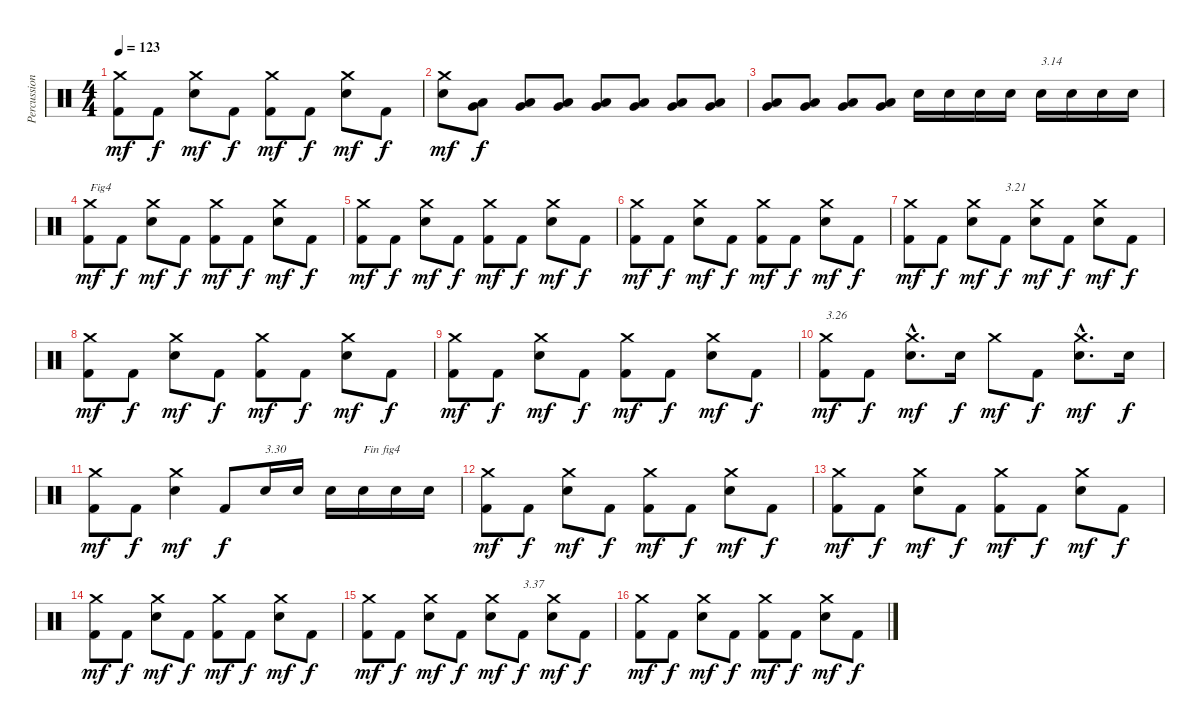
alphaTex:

\track ("Percussions" "Percussion") {instrument percussion}
\staff {score}
\articulation defaults
\ts (4 4)
\tempo 123
\clef neutral
\ks c
("Kick (hit) 2" "Crash medium (hit)").8{dy mf} "Kick (hit) 2".8{dy f} ("Electric Snare (hit)" "Crash medium (hit)").8{dy mf} "Kick (hit) 2".8{dy f} ("Kick (hit) 2" "Crash medium (hit)").8{dy mf} "Kick (hit) 2".8{dy f} ("Electric Snare (hit)" "Crash medium (hit)").8{dy mf} "Kick (hit) 2".8{dy f} |
("Electric Snare (hit)" "Crash medium (hit)").8{dy mf} ("Very Low Tom (hit)" "Low Floor Tom (hit)").8{dy f} ("Very Low Tom (hit)" "Low Floor Tom (hit)").8 ("Very Low Tom (hit)" "Low Floor Tom (hit)").8 ("Very Low Tom (hit)" "Low Floor Tom (hit)").8 ("Very Low Tom (hit)" "Low Floor Tom (hit)").8 ("Very Low Tom (hit)" "Low Floor Tom (hit)").8 ("Very Low Tom (hit)" "Low Floor Tom (hit)").8 |
("Very Low Tom (hit)" "Low Floor Tom (hit)").8 ("Very Low Tom (hit)" "Low Floor Tom (hit)").8 ("Very Low Tom (hit)" "Low Floor Tom (hit)").8 ("Very Low Tom (hit)" "Low Floor Tom (hit)").8 "Electric Snare (hit)".16 "Electric Snare (hit)".16 "Electric Snare (hit)".16 "Electric Snare (hit)".16 "Electric Snare (hit)".16{txt "3.14"} "Electric Snare (hit)".16 "Electric Snare (hit)".16 "Electric Snare (hit)".16 |
("Kick (hit) 2" "Crash medium (hit)").8{txt "Fig4" dy mf} "Kick (hit) 2".8{dy f} ("Electric Snare (hit)" "Crash medium (hit)").8{dy mf} "Kick (hit) 2".8{dy f} ("Kick (hit) 2" "Crash medium (hit)").8{dy mf} "Kick (hit) 2".8{dy f} ("Electric Snare (hit)" "Crash medium (hit)").8{dy mf} "Kick (hit) 2".8{dy f} |
("Kick (hit) 2" "Crash medium (hit)").8{dy mf} "Kick (hit) 2".8{dy f} ("Electric Snare (hit)" "Crash medium (hit)").8{dy mf} "Kick (hit) 2".8{dy f} ("Kick (hit) 2" "Crash medium (hit)").8{dy mf} "Kick (hit) 2".8{dy f} ("Electric Snare (hit)" "Crash medium (hit)").8{dy mf} "Kick (hit) 2".8{dy f} |
("Kick (hit) 2" "Crash medium (hit)").8{dy mf} "Kick (hit) 2".8{dy f} ("Electric Snare (hit)" "Crash medium (hit)").8{dy mf} "Kick (hit) 2".8{dy f} ("Kick (hit) 2" "Crash medium (hit)").8{dy mf} "Kick (hit) 2".8{dy f} ("Electric Snare (hit)" "Crash medium (hit)").8{dy mf} "Kick (hit) 2".8{dy f} |
("Kick (hit) 2" "Crash medium (hit)").8{dy mf} "Kick (hit) 2".8{dy f} ("Electric Snare (hit)" "Crash medium (hit)").8{dy mf} "Kick (hit) 2".8{txt "3.21" dy f} ("Electric Snare (hit)" "Crash medium (hit)").8{dy mf} "Kick (hit) 2".8{dy f} ("Electric Snare (hit)" "Crash medium (hit)").8{dy mf} "Kick (hit) 2".8{dy f} |
("Kick (hit) 2" "Crash medium (hit)").8{dy mf} "Kick (hit) 2".8{dy f} ("Electric Snare (hit)" "Crash medium (hit)").8{dy mf} "Kick (hit) 2".8{dy f} ("Kick (hit) 2" "Crash medium (hit)").8{dy mf} "Kick (hit) 2".8{dy f} ("Electric Snare (hit)" "Crash medium (hit)").8{dy mf} "Kick (hit) 2".8{dy f} |
("Kick (hit) 2" "Crash medium (hit)").8{dy mf} "Kick (hit) 2".8{dy f} ("Electric Snare (hit)" "Crash medium (hit)").8{dy mf} "Kick (hit) 2".8{dy f} ("Kick (hit) 2" "Crash medium (hit)").8{dy mf} "Kick (hit) 2".8{dy f} ("Electric Snare (hit)" "Crash medium (hit)").8{dy mf} "Kick (hit) 2".8{dy f} |
("Kick (hit) 2" "Crash medium (hit)").8{txt "3.26" dy mf} "Kick (hit) 2".8{dy f} ("Electric Snare (hit)"{hac} "Crash medium (hit)"{hac}).8{d dy mf} "Electric Snare (hit)".16{dy f} "Crash medium (hit)".8{dy mf} "Kick (hit) 2".8{dy f} ("Electric Snare (hit)"{hac} "Crash medium (hit)"{hac}).8{d dy mf} "Electric Snare (hit)".16{dy f} |
("Kick (hit) 2" "Crash medium (hit)").8{dy mf} "Kick (hit) 2".8{dy f} ("Electric Snare (hit)" "Crash medium (hit)").4{dy mf} "Kick (hit) 2".8{dy f} "Electric Snare (hit)".16{txt "3.30"} "Electric Snare (hit)".16 "Electric Snare (hit)".16 "Electric Snare (hit)".16{txt "Fin fig4"} "Electric Snare (hit)".16 "Electric Snare (hit)".16 |
("Kick (hit) 2" "Crash medium (hit)").8{dy mf} "Kick (hit) 2".8{dy f} ("Electric Snare (hit)" "Crash medium (hit)").8{dy mf} "Kick (hit) 2".8{dy f} ("Kick (hit) 2" "Crash medium (hit)").8{dy mf} "Kick (hit) 2".8{dy f} ("Electric Snare (hit)" "Crash medium (hit)").8{dy mf} "Kick (hit) 2".8{dy f} |
("Kick (hit) 2" "Crash medium (hit)").8{dy mf} "Kick (hit) 2".8{dy f} ("Electric Snare (hit)" "Crash medium (hit)").8{dy mf} "Kick (hit) 2".8{dy f} ("Kick (hit) 2" "Crash medium (hit)").8{dy mf} "Kick (hit) 2".8{dy f} ("Electric Snare (hit)" "Crash medium (hit)").8{dy mf} "Kick (hit) 2".8{dy f} |
("Kick (hit) 2" "Crash medium (hit)").8{dy mf} "Kick (hit) 2".8{dy f} ("Electric Snare (hit)" "Crash medium (hit)").8{dy mf} "Kick (hit) 2".8{dy f} ("Kick (hit) 2" "Crash medium (hit)").8{dy mf} "Kick (hit) 2".8{dy f} ("Electric Snare (hit)" "Crash medium (hit)").8{dy mf} "Kick (hit) 2".8{dy f} |
("Kick (hit) 2" "Crash medium (hit)").8{dy mf} "Kick (hit) 2".8{dy f} ("Electric Snare (hit)" "Crash medium (hit)").8{dy mf} "Kick (hit) 2".8{dy f} ("Electric Snare (hit)" "Crash medium (hit)").8{dy mf} "Kick (hit) 2".8{txt "3.37" dy f} ("Electric Snare (hit)" "Crash medium (hit)").8{dy mf} "Kick (hit) 2".8{dy f} |
("Kick (hit) 2" "Crash medium (hit)").8{dy mf} "Kick (hit) 2".8{dy f} ("Electric Snare (hit)" "Crash medium (hit)").8{dy mf} "Kick (hit) 2".8{dy f} ("Kick (hit) 2" "Crash medium (hit)").8{dy mf} "Kick (hit) 2".8{dy f} ("Electric Snare (hit)" "Crash medium (hit)").8{dy mf} "Kick (hit) 2".8{dy f}
